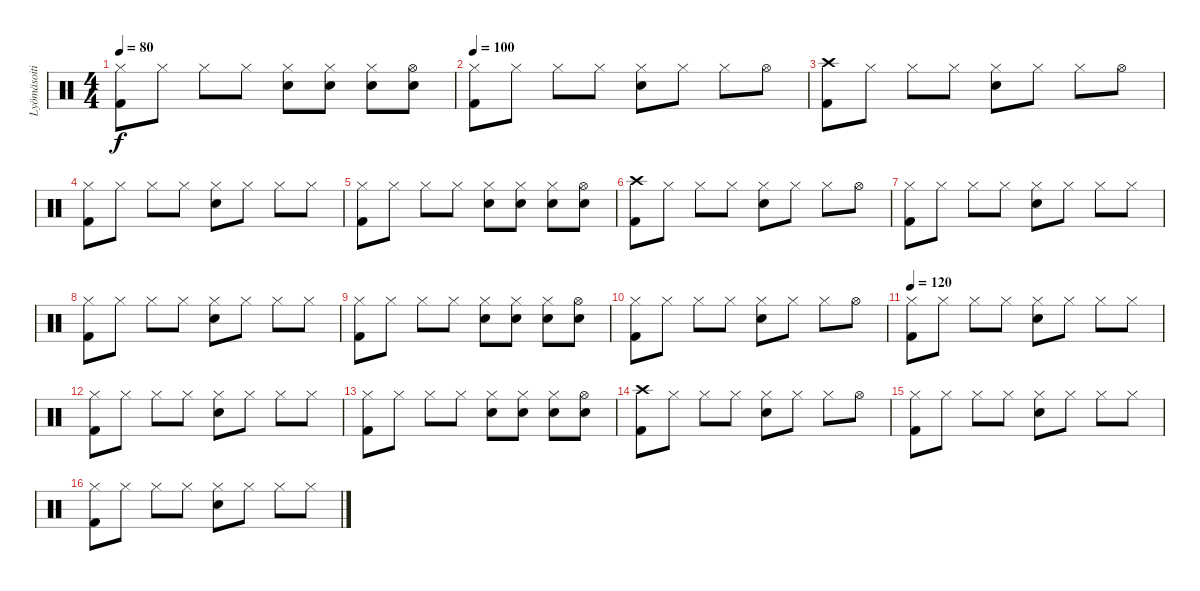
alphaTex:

\track ("Lyömäsoitin" "Lyömäsoiti") {instrument percussion}
\staff {score}
\articulation defaults
\ts (4 4)
\tempo 80
\clef neutral
\ks c
("Hi-Hat (closed)" "Kick (hit) 2").8{dy f} "Hi-Hat (closed)".8 "Hi-Hat (closed)".8 "Hi-Hat (closed)".8 ("Hi-Hat (closed)" "Snare (hit) 2").8 ("Hi-Hat (closed)" "Snare (hit) 2").8 ("Hi-Hat (closed)" "Snare (hit) 2").8 ("Hi-Hat (open)" "Snare (hit) 2").8 |
\tempo 100
("Hi-Hat (closed)" "Kick (hit) 2").8 "Hi-Hat (closed)".8 "Hi-Hat (closed)".8 "Hi-Hat (closed)".8 ("Hi-Hat (closed)" "Snare (hit) 2").8 "Hi-Hat (closed)".8 "Hi-Hat (closed)".8 "Hi-Hat (open)".8 |
("Crash high (hit)" "Kick (hit) 2").8 "Hi-Hat (closed)".8 "Hi-Hat (closed)".8 "Hi-Hat (closed)".8 ("Hi-Hat (closed)" "Snare (hit) 2").8 "Hi-Hat (closed)".8 "Hi-Hat (closed)".8 "Hi-Hat (open)".8 |
("Hi-Hat (closed)" "Kick (hit) 2").8 "Hi-Hat (closed)".8 "Hi-Hat (closed)".8 "Hi-Hat (closed)".8 ("Hi-Hat (closed)" "Snare (hit) 2").8 "Hi-Hat (closed)".8 "Hi-Hat (closed)".8 "Hi-Hat (closed)".8 |
("Hi-Hat (closed)" "Kick (hit) 2").8 "Hi-Hat (closed)".8 "Hi-Hat (closed)".8 "Hi-Hat (closed)".8 ("Hi-Hat (closed)" "Snare (hit) 2").8 ("Hi-Hat (closed)" "Snare (hit) 2").8 ("Hi-Hat (closed)" "Snare (hit) 2").8 ("Hi-Hat (open)" "Snare (hit) 2").8 |
("Crash high (hit)" "Kick (hit) 2").8 "Hi-Hat (closed)".8 "Hi-Hat (closed)".8 "Hi-Hat (closed)".8 ("Hi-Hat (closed)" "Snare (hit) 2").8 "Hi-Hat (closed)".8 "Hi-Hat (closed)".8 "Hi-Hat (open)".8 |
("Hi-Hat (closed)" "Kick (hit) 2").8 "Hi-Hat (closed)".8 "Hi-Hat (closed)".8 "Hi-Hat (closed)".8 ("Hi-Hat (closed)" "Snare (hit) 2").8 "Hi-Hat (closed)".8 "Hi-Hat (closed)".8 "Hi-Hat (closed)".8 |
("Hi-Hat (closed)" "Kick (hit) 2").8 "Hi-Hat (closed)".8 "Hi-Hat (closed)".8 "Hi-Hat (closed)".8 ("Hi-Hat (closed)" "Snare (hit) 2").8 "Hi-Hat (closed)".8 "Hi-Hat (closed)".8 "Hi-Hat (closed)".8 |
("Hi-Hat (closed)" "Kick (hit) 2").8 "Hi-Hat (closed)".8 "Hi-Hat (closed)".8 "Hi-Hat (closed)".8 ("Hi-Hat (closed)" "Snare (hit) 2").8 ("Hi-Hat (closed)" "Snare (hit) 2").8 ("Hi-Hat (closed)" "Snare (hit) 2").8 ("Hi-Hat (open)" "Snare (hit) 2").8 |
("Hi-Hat (closed)" "Kick (hit) 2").8 "Hi-Hat (closed)".8 "Hi-Hat (closed)".8 "Hi-Hat (closed)".8 ("Hi-Hat (closed)" "Snare (hit) 2").8 "Hi-Hat (closed)".8 "Hi-Hat (closed)".8 "Hi-Hat (open)".8 |
\tempo 120
("Hi-Hat (closed)" "Kick (hit) 2").8 "Hi-Hat (closed)".8 "Hi-Hat (closed)".8 "Hi-Hat (closed)".8 ("Hi-Hat (closed)" "Snare (hit) 2").8 "Hi-Hat (closed)".8 "Hi-Hat (closed)".8 "Hi-Hat (closed)".8 |
("Hi-Hat (closed)" "Kick (hit) 2").8 "Hi-Hat (closed)".8 "Hi-Hat (closed)".8 "Hi-Hat (closed)".8 ("Hi-Hat (closed)" "Snare (hit) 2").8 "Hi-Hat (closed)".8 "Hi-Hat (closed)".8 "Hi-Hat (closed)".8 |
("Hi-Hat (closed)" "Kick (hit) 2").8 "Hi-Hat (closed)".8 "Hi-Hat (closed)".8 "Hi-Hat (closed)".8 ("Hi-Hat (closed)" "Snare (hit) 2").8 ("Hi-Hat (closed)" "Snare (hit) 2").8 ("Hi-Hat (closed)" "Snare (hit) 2").8 ("Hi-Hat (open)" "Snare (hit) 2").8 |
("Crash high (hit)" "Kick (hit) 2").8 "Hi-Hat (closed)".8 "Hi-Hat (closed)".8 "Hi-Hat (closed)".8 ("Hi-Hat (closed)" "Snare (hit) 2").8 "Hi-Hat (closed)".8 "Hi-Hat (closed)".8 "Hi-Hat (open)".8 |
("Hi-Hat (closed)" "Kick (hit) 2").8 "Hi-Hat (closed)".8 "Hi-Hat (closed)".8 "Hi-Hat (closed)".8 ("Hi-Hat (closed)" "Snare (hit) 2").8 "Hi-Hat (closed)".8 "Hi-Hat (closed)".8 "Hi-Hat (closed)".8 |
("Hi-Hat (closed)" "Kick (hit) 2").8 "Hi-Hat (closed)".8 "Hi-Hat (closed)".8 "Hi-Hat (closed)".8 ("Hi-Hat (closed)" "Snare (hit) 2").8 "Hi-Hat (closed)".8 "Hi-Hat (closed)".8 "Hi-Hat (closed)".8
